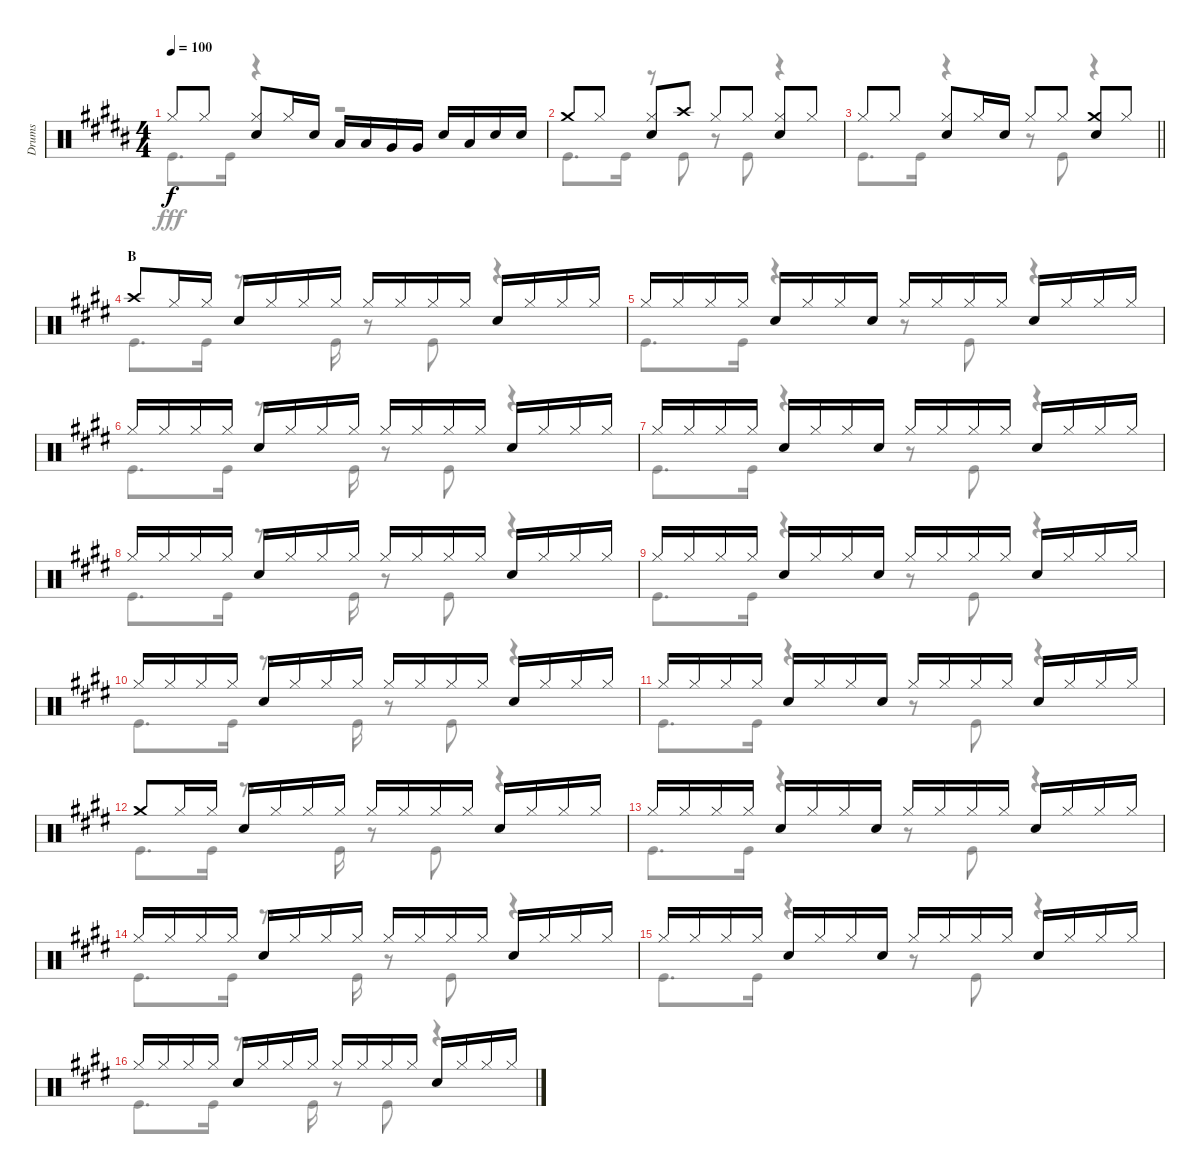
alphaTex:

\track ("Drums" "Drums") {instrument percussion}
\staff {score}
\articulation defaults
\voice
\ts (4 4)
\tempo 100
\clef neutral
\ks b "Hi-Hat (closed)".8{dy f} "Hi-Hat (closed)".8
("Hi-Hat (closed)" "Snare (hit) 2").8 "Hi-Hat (closed)".16 "Snare (hit) 2".16 "Low Tom (hit)".16 "Low Tom (hit)".16 "Very Low Tom (hit)".16 "Very Low Tom (hit)".16 "Snare (hit) 2".16 "Low Tom (hit)".16 "Snare (hit) 2".16 "Snare (hit) 2".16 |
"Crash medium (hit)".8 "Hi-Hat (closed)".8 ("Hi-Hat (closed)" "Snare (hit) 2").8 "Crash high (hit)".8 "Hi-Hat (closed)".8 "Hi-Hat (closed)".8 ("Hi-Hat (closed)" "Snare (hit) 2").8 "Hi-Hat (closed)".8 |
\barLineRight lightlight "Hi-Hat (closed)".8 "Hi-Hat (closed)".8
("Hi-Hat (closed)" "Snare (hit) 2").8 "Hi-Hat (closed)".16 "Snare (hit) 2".16 "Hi-Hat (closed)".8 "Hi-Hat (closed)".8 ("Crash medium (hit)" "Snare (hit) 2").8 "Hi-Hat (closed)".8 |
\section ("" "B")
\ks e "Crash high (hit)".8 "Hi-Hat (closed)".16 "Hi-Hat (closed)".16 "Snare (hit) 2".16 "Hi-Hat (closed)".16 "Hi-Hat (closed)".16 "Hi-Hat (closed)".16 "Hi-Hat (closed)".16 "Hi-Hat (closed)".16 "Hi-Hat (closed)".16 "Hi-Hat (closed)".16 "Snare (hit) 2".16 "Hi-Hat (closed)".16 "Hi-Hat (closed)".16 "Hi-Hat (closed)".16
|
"Hi-Hat (closed)".16 "Hi-Hat (closed)".16 "Hi-Hat (closed)".16 "Hi-Hat (closed)".16 "Snare (hit) 2".16 "Hi-Hat (closed)".16 "Hi-Hat (closed)".16 "Snare (hit) 2".16 "Hi-Hat (closed)".16 "Hi-Hat (closed)".16 "Hi-Hat (closed)".16 "Hi-Hat (closed)".16 "Snare (hit) 2".16 "Hi-Hat (closed)".16 "Hi-Hat (closed)".16 "Hi-Hat (closed)".16 |
"Hi-Hat (closed)".16 "Hi-Hat (closed)".16 "Hi-Hat (closed)".16 "Hi-Hat (closed)".16 "Snare (hit) 2".16 "Hi-Hat (closed)".16 "Hi-Hat (closed)".16 "Hi-Hat (closed)".16 "Hi-Hat (closed)".16 "Hi-Hat (closed)".16 "Hi-Hat (closed)".16 "Hi-Hat (closed)".16 "Snare (hit) 2".16 "Hi-Hat (closed)".16 "Hi-Hat (closed)".16 "Hi-Hat (closed)".16 |
"Hi-Hat (closed)".16 "Hi-Hat (closed)".16 "Hi-Hat (closed)".16 "Hi-Hat (closed)".16 "Snare (hit) 2".16 "Hi-Hat (closed)".16 "Hi-Hat (closed)".16 "Snare (hit) 2".16 "Hi-Hat (closed)".16 "Hi-Hat (closed)".16 "Hi-Hat (closed)".16 "Hi-Hat (closed)".16 "Snare (hit) 2".16 "Hi-Hat (closed)".16 "Hi-Hat (closed)".16 "Hi-Hat (closed)".16 |
"Hi-Hat (closed)".16 "Hi-Hat (closed)".16 "Hi-Hat (closed)".16 "Hi-Hat (closed)".16 "Snare (hit) 2".16 "Hi-Hat (closed)".16 "Hi-Hat (closed)".16 "Hi-Hat (closed)".16 "Hi-Hat (closed)".16 "Hi-Hat (closed)".16 "Hi-Hat (closed)".16 "Hi-Hat (closed)".16 "Snare (hit) 2".16 "Hi-Hat (closed)".16 "Hi-Hat (closed)".16 "Hi-Hat (closed)".16 |
"Hi-Hat (closed)".16 "Hi-Hat (closed)".16 "Hi-Hat (closed)".16 "Hi-Hat (closed)".16 "Snare (hit) 2".16 "Hi-Hat (closed)".16 "Hi-Hat (closed)".16 "Snare (hit) 2".16 "Hi-Hat (closed)".16 "Hi-Hat (closed)".16 "Hi-Hat (closed)".16 "Hi-Hat (closed)".16 "Snare (hit) 2".16 "Hi-Hat (closed)".16 "Hi-Hat (closed)".16 "Hi-Hat (closed)".16 |
"Hi-Hat (closed)".16 "Hi-Hat (closed)".16 "Hi-Hat (closed)".16 "Hi-Hat (closed)".16 "Snare (hit) 2".16 "Hi-Hat (closed)".16 "Hi-Hat (closed)".16 "Hi-Hat (closed)".16 "Hi-Hat (closed)".16 "Hi-Hat (closed)".16 "Hi-Hat (closed)".16 "Hi-Hat (closed)".16 "Snare (hit) 2".16 "Hi-Hat (closed)".16 "Hi-Hat (closed)".16 "Hi-Hat (closed)".16 |
"Hi-Hat (closed)".16 "Hi-Hat (closed)".16 "Hi-Hat (closed)".16 "Hi-Hat (closed)".16 "Snare (hit) 2".16 "Hi-Hat (closed)".16 "Hi-Hat (closed)".16 "Snare (hit) 2".16 "Hi-Hat (closed)".16 "Hi-Hat (closed)".16 "Hi-Hat (closed)".16 "Hi-Hat (closed)".16 "Snare (hit) 2".16 "Hi-Hat (closed)".16 "Hi-Hat (closed)".16 "Hi-Hat (closed)".16 |
"Crash medium (hit)".8 "Hi-Hat (closed)".16 "Hi-Hat (closed)".16 "Snare (hit) 2".16 "Hi-Hat (closed)".16 "Hi-Hat (closed)".16 "Hi-Hat (closed)".16 "Hi-Hat (closed)".16 "Hi-Hat (closed)".16 "Hi-Hat (closed)".16 "Hi-Hat (closed)".16 "Snare (hit) 2".16 "Hi-Hat (closed)".16 "Hi-Hat (closed)".16 "Hi-Hat (closed)".16 |
"Hi-Hat (closed)".16 "Hi-Hat (closed)".16 "Hi-Hat (closed)".16 "Hi-Hat (closed)".16 "Snare (hit) 2".16 "Hi-Hat (closed)".16 "Hi-Hat (closed)".16 "Snare (hit) 2".16 "Hi-Hat (closed)".16 "Hi-Hat (closed)".16 "Hi-Hat (closed)".16 "Hi-Hat (closed)".16 "Snare (hit) 2".16 "Hi-Hat (closed)".16 "Hi-Hat (closed)".16 "Hi-Hat (closed)".16 |
"Hi-Hat (closed)".16 "Hi-Hat (closed)".16 "Hi-Hat (closed)".16 "Hi-Hat (closed)".16 "Snare (hit) 2".16 "Hi-Hat (closed)".16 "Hi-Hat (closed)".16 "Hi-Hat (closed)".16 "Hi-Hat (closed)".16 "Hi-Hat (closed)".16 "Hi-Hat (closed)".16 "Hi-Hat (closed)".16 "Snare (hit) 2".16 "Hi-Hat (closed)".16 "Hi-Hat (closed)".16 "Hi-Hat (closed)".16 |
"Hi-Hat (closed)".16 "Hi-Hat (closed)".16 "Hi-Hat (closed)".16 "Hi-Hat (closed)".16 "Snare (hit) 2".16 "Hi-Hat (closed)".16 "Hi-Hat (closed)".16 "Snare (hit) 2".16 "Hi-Hat (closed)".16 "Hi-Hat (closed)".16 "Hi-Hat (closed)".16 "Hi-Hat (closed)".16 "Snare (hit) 2".16 "Hi-Hat (closed)".16 "Hi-Hat (closed)".16 "Hi-Hat (closed)".16 |
"Hi-Hat (closed)".16 "Hi-Hat (closed)".16 "Hi-Hat (closed)".16 "Hi-Hat (closed)".16 "Snare (hit) 2".16 "Hi-Hat (closed)".16 "Hi-Hat (closed)".16 "Hi-Hat (closed)".16 "Hi-Hat (closed)".16 "Hi-Hat (closed)".16 "Hi-Hat (closed)".16 "Hi-Hat (closed)".16 "Snare (hit) 2".16 "Hi-Hat (closed)".16 "Hi-Hat (closed)".16 "Hi-Hat (closed)".16
\voice
\clef neutral
\ottava regular
\simile none
\ks b "Kick (hit)".8{d dy fff} "Kick (hit)".16
r.4 r.2 |
"Kick (hit)".8{d} "Kick (hit)".16 r.8 "Kick (hit)".8 r.8 "Kick (hit)".8 r.4 |
\barLineRight lightlight "Kick (hit)".8{d} "Kick (hit)".16
r.4 r.8 "Kick (hit)".8 r.4 |
\ks e "Kick (hit)".8{d} "Kick (hit)".16
r.8{d} "Kick (hit)".16 r.8 "Kick (hit)".8 r.4 |
"Kick (hit)".8{d} "Kick (hit)".16 r.4 r.8 "Kick (hit)".8 r.4 |
"Kick (hit)".8{d} "Kick (hit)".16 r.8{d} "Kick (hit)".16 r.8 "Kick (hit)".8 r.4 |
"Kick (hit)".8{d} "Kick (hit)".16 r.4 r.8 "Kick (hit)".8 r.4 |
"Kick (hit)".8{d} "Kick (hit)".16 r.8{d} "Kick (hit)".16 r.8 "Kick (hit)".8 r.4 |
"Kick (hit)".8{d} "Kick (hit)".16 r.4 r.8 "Kick (hit)".8 r.4 |
"Kick (hit)".8{d} "Kick (hit)".16 r.8{d} "Kick (hit)".16 r.8 "Kick (hit)".8 r.4 |
"Kick (hit)".8{d} "Kick (hit)".16 r.4 r.8 "Kick (hit)".8 r.4 |
"Kick (hit)".8{d} "Kick (hit)".16 r.8{d} "Kick (hit)".16 r.8 "Kick (hit)".8 r.4 |
"Kick (hit)".8{d} "Kick (hit)".16 r.4 r.8 "Kick (hit)".8 r.4 |
"Kick (hit)".8{d} "Kick (hit)".16 r.8{d} "Kick (hit)".16 r.8 "Kick (hit)".8 r.4 |
"Kick (hit)".8{d} "Kick (hit)".16 r.4 r.8 "Kick (hit)".8 r.4 |
"Kick (hit)".8{d} "Kick (hit)".16 r.8{d} "Kick (hit)".16 r.8 "Kick (hit)".8 r.4
